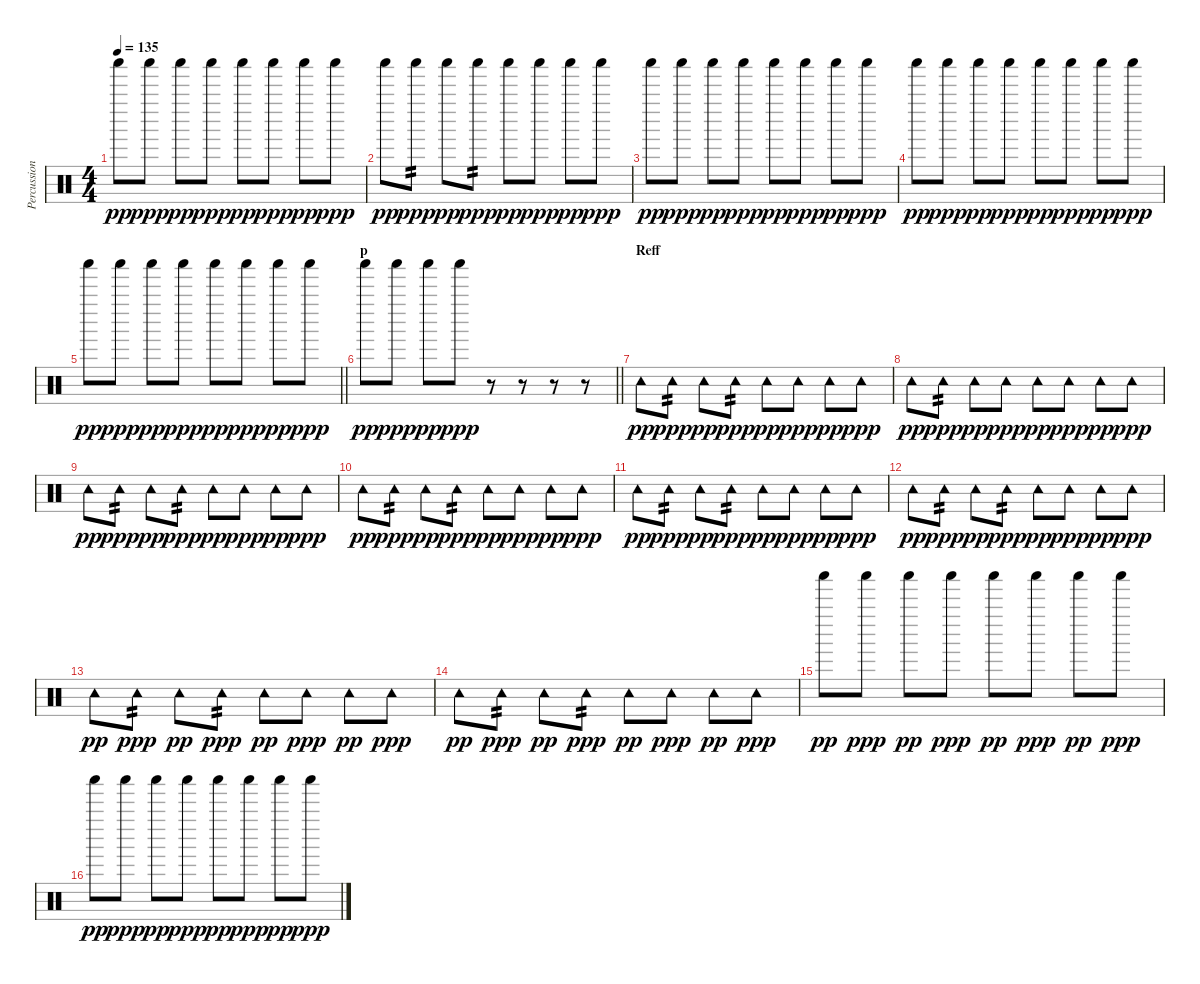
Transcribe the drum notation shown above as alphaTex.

\track ("Percussion" "Percussion") {instrument percussion}
\staff {score}
\articulation defaults
\ts (4 4)
\tempo 135
\clef neutral
\ks c "Shaker (hit)".8{dy pp} "Shaker (hit)".8{dy ppp} "Shaker (hit)".8{dy pp} "Shaker (hit)".8{dy ppp} "Shaker (hit)".8{dy pp} "Shaker (hit)".8{dy ppp} "Shaker (hit)".8{dy pp} "Shaker (hit)".8{dy ppp}
|
"Shaker (hit)".8{dy pp} "Shaker (hit)".8{tp 2 dy ppp} "Shaker (hit)".8{dy pp} "Shaker (hit)".8{tp 2 dy ppp} "Shaker (hit)".8{dy pp} "Shaker (hit)".8{dy ppp} "Shaker (hit)".8{dy pp} "Shaker (hit)".8{dy ppp} |
"Shaker (hit)".8{dy pp} "Shaker (hit)".8{dy ppp} "Shaker (hit)".8{dy pp} "Shaker (hit)".8{dy ppp} "Shaker (hit)".8{dy pp} "Shaker (hit)".8{dy ppp} "Shaker (hit)".8{dy pp} "Shaker (hit)".8{dy ppp} |
"Shaker (hit)".8{dy pp} "Shaker (hit)".8{dy ppp} "Shaker (hit)".8{dy pp} "Shaker (hit)".8{dy ppp} "Shaker (hit)".8{dy pp} "Shaker (hit)".8{dy ppp} "Shaker (hit)".8{dy pp} "Shaker (hit)".8{dy ppp} |
\barLineRight lightlight "Shaker (hit)".8{dy pp} "Shaker (hit)".8{dy ppp} "Shaker (hit)".8{dy pp} "Shaker (hit)".8{dy ppp} "Shaker (hit)".8{dy pp} "Shaker (hit)".8{dy ppp} "Shaker (hit)".8{dy pp} "Shaker (hit)".8{dy ppp}
|
\section ("" "p")
\barLineRight lightlight "Shaker (hit)".8{dy pp} "Shaker (hit)".8{dy ppp} "Shaker (hit)".8{dy pp} "Shaker (hit)".8{dy ppp}
r.8 r.8 r.8 r.8 |
\section ("" "Reff")
"Tambourine (hit)".8{dy pp} "Tambourine (hit)".8{tp 2 dy ppp} "Tambourine (hit)".8{dy pp} "Tambourine (hit)".8{tp 2 dy ppp} "Tambourine (hit)".8{dy pp} "Tambourine (hit)".8{dy ppp} "Tambourine (hit)".8{dy pp} "Tambourine (hit)".8{dy ppp} |
"Tambourine (hit)".8{dy pp} "Tambourine (hit)".8{tp 2 dy ppp} "Tambourine (hit)".8{dy pp} "Tambourine (hit)".8{dy ppp} "Tambourine (hit)".8{dy pp} "Tambourine (hit)".8{dy ppp} "Tambourine (hit)".8{dy pp} "Tambourine (hit)".8{dy ppp} |
"Tambourine (hit)".8{dy pp} "Tambourine (hit)".8{tp 2 dy ppp} "Tambourine (hit)".8{dy pp} "Tambourine (hit)".8{tp 2 dy ppp} "Tambourine (hit)".8{dy pp} "Tambourine (hit)".8{dy ppp} "Tambourine (hit)".8{dy pp} "Tambourine (hit)".8{dy ppp} |
"Tambourine (hit)".8{dy pp} "Tambourine (hit)".8{tp 2 dy ppp} "Tambourine (hit)".8{dy pp} "Tambourine (hit)".8{tp 2 dy ppp} "Tambourine (hit)".8{dy pp} "Tambourine (hit)".8{dy ppp} "Tambourine (hit)".8{dy pp} "Tambourine (hit)".8{dy ppp} |
"Tambourine (hit)".8{dy pp} "Tambourine (hit)".8{tp 2 dy ppp} "Tambourine (hit)".8{dy pp} "Tambourine (hit)".8{tp 2 dy ppp} "Tambourine (hit)".8{dy pp} "Tambourine (hit)".8{dy ppp} "Tambourine (hit)".8{dy pp} "Tambourine (hit)".8{dy ppp} |
"Tambourine (hit)".8{dy pp} "Tambourine (hit)".8{tp 2 dy ppp} "Tambourine (hit)".8{dy pp} "Tambourine (hit)".8{tp 2 dy ppp} "Tambourine (hit)".8{dy pp} "Tambourine (hit)".8{dy ppp} "Tambourine (hit)".8{dy pp} "Tambourine (hit)".8{dy ppp} |
"Tambourine (hit)".8{dy pp} "Tambourine (hit)".8{tp 2 dy ppp} "Tambourine (hit)".8{dy pp} "Tambourine (hit)".8{tp 2 dy ppp} "Tambourine (hit)".8{dy pp} "Tambourine (hit)".8{dy ppp} "Tambourine (hit)".8{dy pp} "Tambourine (hit)".8{dy ppp} |
"Tambourine (hit)".8{dy pp} "Tambourine (hit)".8{tp 2 dy ppp} "Tambourine (hit)".8{dy pp} "Tambourine (hit)".8{tp 2 dy ppp} "Tambourine (hit)".8{dy pp} "Tambourine (hit)".8{dy ppp} "Tambourine (hit)".8{dy pp} "Tambourine (hit)".8{dy ppp} |
"Shaker (hit)".8{dy pp} "Shaker (hit)".8{dy ppp} "Shaker (hit)".8{dy pp} "Shaker (hit)".8{dy ppp} "Shaker (hit)".8{dy pp} "Shaker (hit)".8{dy ppp} "Shaker (hit)".8{dy pp} "Shaker (hit)".8{dy ppp} |
"Shaker (hit)".8{dy pp} "Shaker (hit)".8{dy ppp} "Shaker (hit)".8{dy pp} "Shaker (hit)".8{dy ppp} "Shaker (hit)".8{dy pp} "Shaker (hit)".8{dy ppp} "Shaker (hit)".8{dy pp} "Shaker (hit)".8{dy ppp}
